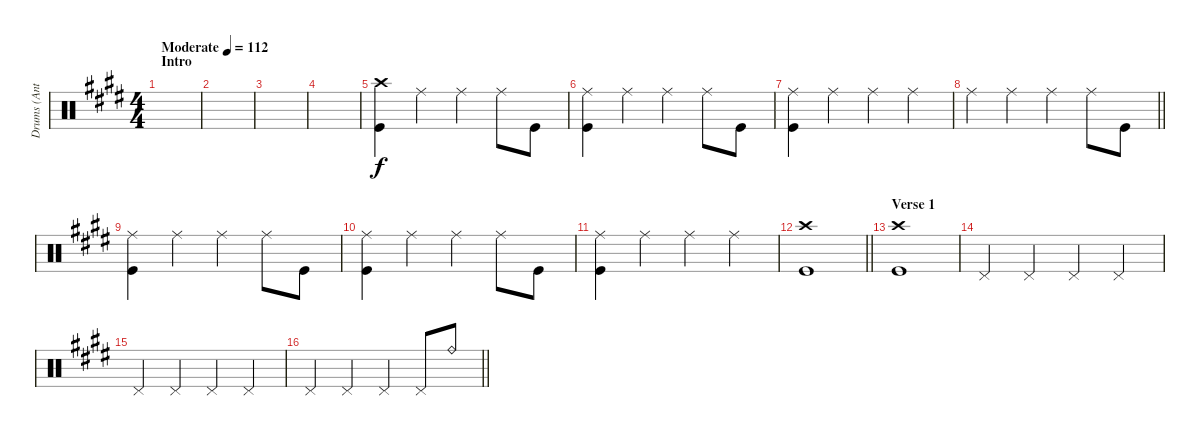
\track ("Drums (Ant)" "Drums (Ant") {instrument percussion}
\staff {score}
\articulation defaults
\ts (4 4)
\section ("" "Intro")
\tempo (112 "Moderate")
\clef neutral
\ks e
|
|
|
|
("Crash high (hit)" "Kick (hit)").4 "Ride (middle)".4 "Ride (middle)".4 "Ride (middle)".8 "Kick (hit)".8 |
("Ride (middle)" "Kick (hit)").4 "Ride (middle)".4 "Ride (middle)".4 "Ride (middle)".8 "Kick (hit)".8 |
("Ride (middle)" "Kick (hit)").4 "Ride (middle)".4 "Ride (middle)".4 "Ride (middle)".4 |
\barLineRight lightlight "Ride (middle)".4 "Ride (middle)".4 "Ride (middle)".4 "Ride (middle)".8 "Kick (hit)".8
|
("Ride (middle)" "Kick (hit)").4 "Ride (middle)".4 "Ride (middle)".4 "Ride (middle)".8 "Kick (hit)".8 |
("Ride (middle)" "Kick (hit)").4 "Ride (middle)".4 "Ride (middle)".4 "Ride (middle)".8 "Kick (hit)".8 |
("Ride (middle)" "Kick (hit)").4 "Ride (middle)".4 "Ride (middle)".4 "Ride (middle)".4 |
\barLineRight lightlight
("Crash high (hit)" "Kick (hit)").1 |
\section ("" "Verse 1")
("Crash high (hit)" "Kick (hit)").1 |
"Pedal Hi-Hat (hit)".4 "Pedal Hi-Hat (hit)".4 "Pedal Hi-Hat (hit)".4 "Pedal Hi-Hat (hit)".4 |
"Pedal Hi-Hat (hit)".4 "Pedal Hi-Hat (hit)".4 "Pedal Hi-Hat (hit)".4 "Pedal Hi-Hat (hit)".4 |
\barLineRight lightlight "Pedal Hi-Hat (hit)".4 "Pedal Hi-Hat (hit)".4 "Pedal Hi-Hat (hit)".4 "Pedal Hi-Hat (hit)".8 "Ride (bell)".8
